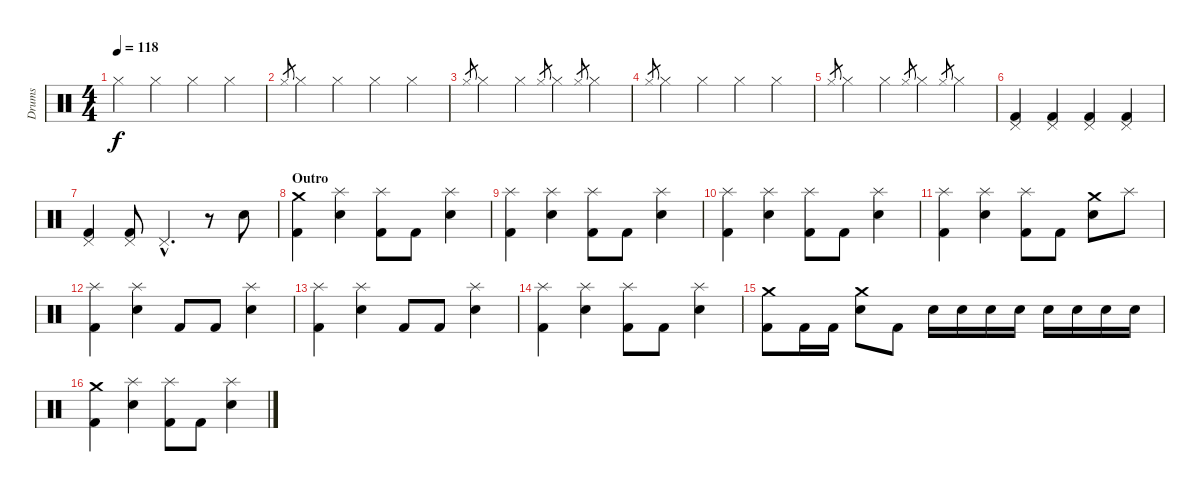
\track ("Drums" "Drums") {instrument percussion}
\staff {score}
\articulation defaults
\ts (4 4)
\tempo 118
\clef neutral
\ks c "Hi-Hat (closed)".4{dy f} "Hi-Hat (closed)".4 "Hi-Hat (closed)".4 "Hi-Hat (closed)".4
|
"Hi-Hat (closed)".8{gr} "Hi-Hat (closed)".4 "Hi-Hat (closed)".4 "Hi-Hat (closed)".4 "Hi-Hat (closed)".4 |
"Hi-Hat (closed)".8{gr} "Hi-Hat (closed)".4 "Hi-Hat (closed)".4 "Hi-Hat (closed)".8{gr} "Hi-Hat (closed)".4 "Hi-Hat (closed)".8{gr} "Hi-Hat (closed)".4 |
"Hi-Hat (closed)".8{gr} "Hi-Hat (closed)".4 "Hi-Hat (closed)".4 "Hi-Hat (closed)".4 "Hi-Hat (closed)".4 |
"Hi-Hat (closed)".8{gr} "Hi-Hat (closed)".4 "Hi-Hat (closed)".4 "Hi-Hat (closed)".8{gr} "Hi-Hat (closed)".4 "Hi-Hat (closed)".8{gr} "Hi-Hat (closed)".4 |
("Pedal Hi-Hat (hit)" "Kick (hit) 2").4 ("Pedal Hi-Hat (hit)" "Kick (hit) 2").4 ("Pedal Hi-Hat (hit)" "Kick (hit) 2").4 ("Pedal Hi-Hat (hit)" "Kick (hit) 2").4 |
("Pedal Hi-Hat (hit)" "Kick (hit) 2").4 ("Pedal Hi-Hat (hit)" "Kick (hit) 2").8 "Pedal Hi-Hat (hit)"{hac}.4{d} r.8 "Electric Snare (hit)".8 |
\section ("" "Outro")
("Crash medium (hit)" "Kick (hit) 2").4 ("Splash (hit)" "Electric Snare (hit)").4 ("Splash (hit)" "Kick (hit) 2").8 "Kick (hit) 2".8 ("Splash (hit)" "Electric Snare (hit)").4 |
("Splash (hit)" "Kick (hit) 2").4 ("Splash (hit)" "Electric Snare (hit)").4 ("Splash (hit)" "Kick (hit) 2").8 "Kick (hit) 2".8 ("Splash (hit)" "Electric Snare (hit)").4 |
("Splash (hit)" "Kick (hit) 2").4 ("Splash (hit)" "Electric Snare (hit)").4 ("Splash (hit)" "Kick (hit) 2").8 "Kick (hit) 2".8 ("Splash (hit)" "Electric Snare (hit)").4 |
("Splash (hit)" "Kick (hit) 2").4 ("Splash (hit)" "Electric Snare (hit)").4 ("Splash (hit)" "Kick (hit) 2").8 "Kick (hit) 2".8 ("Crash medium (hit)" "Electric Snare (hit)").8 "Splash (hit)".8 |
("Splash (hit)" "Kick (hit) 2").4 ("Splash (hit)" "Electric Snare (hit)").4 "Kick (hit) 2".8 "Kick (hit) 2".8 ("Splash (hit)" "Electric Snare (hit)").4 |
("Splash (hit)" "Kick (hit) 2").4 ("Splash (hit)" "Electric Snare (hit)").4 "Kick (hit) 2".8 "Kick (hit) 2".8 ("Splash (hit)" "Electric Snare (hit)").4 |
("Splash (hit)" "Kick (hit) 2").4 ("Splash (hit)" "Electric Snare (hit)").4 ("Splash (hit)" "Kick (hit) 2").8 "Kick (hit) 2".8 ("Splash (hit)" "Electric Snare (hit)").4 |
("Crash medium (hit)" "Kick (hit) 2").8 "Kick (hit) 2".16 "Kick (hit) 2".16 ("Crash medium (hit)" "Snare (hit) 2").8 "Kick (hit) 2".8 "Electric Snare (hit)".16 "Electric Snare (hit)".16 "Electric Snare (hit)".16 "Electric Snare (hit)".16 "Electric Snare (hit)".16 "Electric Snare (hit)".16 "Electric Snare (hit)".16 "Electric Snare (hit)".16 |
("Crash medium (hit)" "Kick (hit) 2").4 ("Splash (hit)" "Electric Snare (hit)").4 ("Splash (hit)" "Kick (hit) 2").8 "Kick (hit) 2".8 ("Splash (hit)" "Electric Snare (hit)").4
